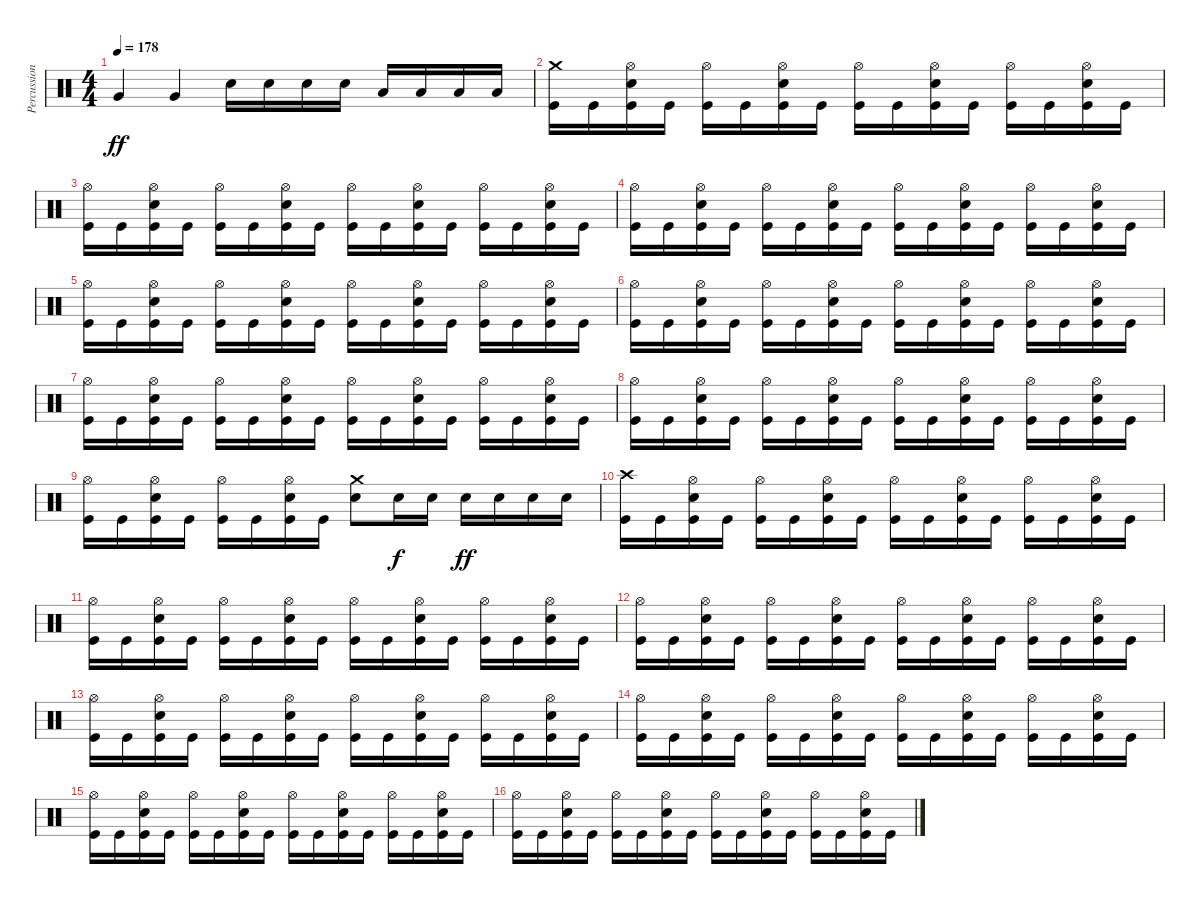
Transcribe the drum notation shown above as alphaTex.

\track ("Percussion" "Percussion") {instrument percussion}
\staff {score}
\articulation defaults
\ts (4 4)
\tempo 178
\clef neutral
\ks c "Very Low Tom (hit)".4{dy ff} "Very Low Tom (hit)".4 "Snare (hit) 2".16 "Snare (hit) 2".16 "Snare (hit) 2".16 "Snare (hit) 2".16 "Low Tom (hit)".16 "Low Tom (hit)".16 "Low Tom (hit)".16 "Low Tom (hit)".16
|
("Crash medium (hit)" "Kick (hit)").16 "Kick (hit)".16 ("Hi-Hat (open)" "Snare (hit) 2" "Kick (hit)").16 "Kick (hit)".16 ("Hi-Hat (open)" "Kick (hit)").16 "Kick (hit)".16 ("Hi-Hat (open)" "Snare (hit) 2" "Kick (hit)").16 "Kick (hit)".16 ("Hi-Hat (open)" "Kick (hit)").16 "Kick (hit)".16 ("Hi-Hat (open)" "Snare (hit) 2" "Kick (hit)").16 "Kick (hit)".16 ("Hi-Hat (open)" "Kick (hit)").16 "Kick (hit)".16 ("Hi-Hat (open)" "Snare (hit) 2" "Kick (hit)").16 "Kick (hit)".16 |
("Hi-Hat (open)" "Kick (hit)").16 "Kick (hit)".16 ("Hi-Hat (open)" "Snare (hit) 2" "Kick (hit)").16 "Kick (hit)".16 ("Hi-Hat (open)" "Kick (hit)").16 "Kick (hit)".16 ("Hi-Hat (open)" "Snare (hit) 2" "Kick (hit)").16 "Kick (hit)".16 ("Hi-Hat (open)" "Kick (hit)").16 "Kick (hit)".16 ("Hi-Hat (open)" "Snare (hit) 2" "Kick (hit)").16 "Kick (hit)".16 ("Hi-Hat (open)" "Kick (hit)").16 "Kick (hit)".16 ("Hi-Hat (open)" "Snare (hit) 2" "Kick (hit)").16 "Kick (hit)".16 |
("Hi-Hat (open)" "Kick (hit)").16 "Kick (hit)".16 ("Hi-Hat (open)" "Snare (hit) 2" "Kick (hit)").16 "Kick (hit)".16 ("Hi-Hat (open)" "Kick (hit)").16 "Kick (hit)".16 ("Hi-Hat (open)" "Snare (hit) 2" "Kick (hit)").16 "Kick (hit)".16 ("Hi-Hat (open)" "Kick (hit)").16 "Kick (hit)".16 ("Hi-Hat (open)" "Snare (hit) 2" "Kick (hit)").16 "Kick (hit)".16 ("Hi-Hat (open)" "Kick (hit)").16 "Kick (hit)".16 ("Hi-Hat (open)" "Snare (hit) 2" "Kick (hit)").16 "Kick (hit)".16 |
("Hi-Hat (open)" "Kick (hit)").16 "Kick (hit)".16 ("Hi-Hat (open)" "Snare (hit) 2" "Kick (hit)").16 "Kick (hit)".16 ("Hi-Hat (open)" "Kick (hit)").16 "Kick (hit)".16 ("Hi-Hat (open)" "Snare (hit) 2" "Kick (hit)").16 "Kick (hit)".16 ("Hi-Hat (open)" "Kick (hit)").16 "Kick (hit)".16 ("Hi-Hat (open)" "Snare (hit) 2" "Kick (hit)").16 "Kick (hit)".16 ("Hi-Hat (open)" "Kick (hit)").16 "Kick (hit)".16 ("Hi-Hat (open)" "Snare (hit) 2" "Kick (hit)").16 "Kick (hit)".16 |
("Hi-Hat (open)" "Kick (hit)").16 "Kick (hit)".16 ("Hi-Hat (open)" "Snare (hit) 2" "Kick (hit)").16 "Kick (hit)".16 ("Hi-Hat (open)" "Kick (hit)").16 "Kick (hit)".16 ("Hi-Hat (open)" "Snare (hit) 2" "Kick (hit)").16 "Kick (hit)".16 ("Hi-Hat (open)" "Kick (hit)").16 "Kick (hit)".16 ("Hi-Hat (open)" "Snare (hit) 2" "Kick (hit)").16 "Kick (hit)".16 ("Hi-Hat (open)" "Kick (hit)").16 "Kick (hit)".16 ("Hi-Hat (open)" "Snare (hit) 2" "Kick (hit)").16 "Kick (hit)".16 |
("Hi-Hat (open)" "Kick (hit)").16 "Kick (hit)".16 ("Hi-Hat (open)" "Snare (hit) 2" "Kick (hit)").16 "Kick (hit)".16 ("Hi-Hat (open)" "Kick (hit)").16 "Kick (hit)".16 ("Hi-Hat (open)" "Snare (hit) 2" "Kick (hit)").16 "Kick (hit)".16 ("Hi-Hat (open)" "Kick (hit)").16 "Kick (hit)".16 ("Hi-Hat (open)" "Snare (hit) 2" "Kick (hit)").16 "Kick (hit)".16 ("Hi-Hat (open)" "Kick (hit)").16 "Kick (hit)".16 ("Hi-Hat (open)" "Snare (hit) 2" "Kick (hit)").16 "Kick (hit)".16 |
("Hi-Hat (open)" "Kick (hit)").16 "Kick (hit)".16 ("Hi-Hat (open)" "Snare (hit) 2" "Kick (hit)").16 "Kick (hit)".16 ("Hi-Hat (open)" "Kick (hit)").16 "Kick (hit)".16 ("Hi-Hat (open)" "Snare (hit) 2" "Kick (hit)").16 "Kick (hit)".16 ("Hi-Hat (open)" "Kick (hit)").16 "Kick (hit)".16 ("Hi-Hat (open)" "Snare (hit) 2" "Kick (hit)").16 "Kick (hit)".16 ("Hi-Hat (open)" "Kick (hit)").16 "Kick (hit)".16 ("Hi-Hat (open)" "Snare (hit) 2" "Kick (hit)").16 "Kick (hit)".16 |
("Hi-Hat (open)" "Kick (hit)").16 "Kick (hit)".16 ("Hi-Hat (open)" "Snare (hit) 2" "Kick (hit)").16 "Kick (hit)".16 ("Hi-Hat (open)" "Kick (hit)").16 "Kick (hit)".16 ("Hi-Hat (open)" "Snare (hit) 2" "Kick (hit)").16 "Kick (hit)".16 ("Crash medium (hit)" "Snare (hit) 2").8 "Snare (hit) 2".16{dy f} "Snare (hit) 2".16 "Snare (hit) 2".16{dy ff} "Snare (hit) 2".16 "Snare (hit) 2".16 "Snare (hit) 2".16 |
("Crash high (hit)" "Kick (hit)").16 "Kick (hit)".16 ("Hi-Hat (open)" "Snare (hit) 2" "Kick (hit)").16 "Kick (hit)".16 ("Hi-Hat (open)" "Kick (hit)").16 "Kick (hit)".16 ("Hi-Hat (open)" "Snare (hit) 2" "Kick (hit)").16 "Kick (hit)".16 ("Hi-Hat (open)" "Kick (hit)").16 "Kick (hit)".16 ("Hi-Hat (open)" "Snare (hit) 2" "Kick (hit)").16 "Kick (hit)".16 ("Hi-Hat (open)" "Kick (hit)").16 "Kick (hit)".16 ("Hi-Hat (open)" "Snare (hit) 2" "Kick (hit)").16 "Kick (hit)".16 |
("Hi-Hat (open)" "Kick (hit)").16 "Kick (hit)".16 ("Hi-Hat (open)" "Snare (hit) 2" "Kick (hit)").16 "Kick (hit)".16 ("Hi-Hat (open)" "Kick (hit)").16 "Kick (hit)".16 ("Hi-Hat (open)" "Snare (hit) 2" "Kick (hit)").16 "Kick (hit)".16 ("Hi-Hat (open)" "Kick (hit)").16 "Kick (hit)".16 ("Hi-Hat (open)" "Snare (hit) 2" "Kick (hit)").16 "Kick (hit)".16 ("Hi-Hat (open)" "Kick (hit)").16 "Kick (hit)".16 ("Hi-Hat (open)" "Snare (hit) 2" "Kick (hit)").16 "Kick (hit)".16 |
("Hi-Hat (open)" "Kick (hit)").16 "Kick (hit)".16 ("Hi-Hat (open)" "Snare (hit) 2" "Kick (hit)").16 "Kick (hit)".16 ("Hi-Hat (open)" "Kick (hit)").16 "Kick (hit)".16 ("Hi-Hat (open)" "Snare (hit) 2" "Kick (hit)").16 "Kick (hit)".16 ("Hi-Hat (open)" "Kick (hit)").16 "Kick (hit)".16 ("Hi-Hat (open)" "Snare (hit) 2" "Kick (hit)").16 "Kick (hit)".16 ("Hi-Hat (open)" "Kick (hit)").16 "Kick (hit)".16 ("Hi-Hat (open)" "Snare (hit) 2" "Kick (hit)").16 "Kick (hit)".16 |
("Hi-Hat (open)" "Kick (hit)").16 "Kick (hit)".16 ("Hi-Hat (open)" "Snare (hit) 2" "Kick (hit)").16 "Kick (hit)".16 ("Hi-Hat (open)" "Kick (hit)").16 "Kick (hit)".16 ("Hi-Hat (open)" "Snare (hit) 2" "Kick (hit)").16 "Kick (hit)".16 ("Hi-Hat (open)" "Kick (hit)").16 "Kick (hit)".16 ("Hi-Hat (open)" "Snare (hit) 2" "Kick (hit)").16 "Kick (hit)".16 ("Hi-Hat (open)" "Kick (hit)").16 "Kick (hit)".16 ("Hi-Hat (open)" "Snare (hit) 2" "Kick (hit)").16 "Kick (hit)".16 |
("Hi-Hat (open)" "Kick (hit)").16 "Kick (hit)".16 ("Hi-Hat (open)" "Snare (hit) 2" "Kick (hit)").16 "Kick (hit)".16 ("Hi-Hat (open)" "Kick (hit)").16 "Kick (hit)".16 ("Hi-Hat (open)" "Snare (hit) 2" "Kick (hit)").16 "Kick (hit)".16 ("Hi-Hat (open)" "Kick (hit)").16 "Kick (hit)".16 ("Hi-Hat (open)" "Snare (hit) 2" "Kick (hit)").16 "Kick (hit)".16 ("Hi-Hat (open)" "Kick (hit)").16 "Kick (hit)".16 ("Hi-Hat (open)" "Snare (hit) 2" "Kick (hit)").16 "Kick (hit)".16 |
("Hi-Hat (open)" "Kick (hit)").16 "Kick (hit)".16 ("Hi-Hat (open)" "Snare (hit) 2" "Kick (hit)").16 "Kick (hit)".16 ("Hi-Hat (open)" "Kick (hit)").16 "Kick (hit)".16 ("Hi-Hat (open)" "Snare (hit) 2" "Kick (hit)").16 "Kick (hit)".16 ("Hi-Hat (open)" "Kick (hit)").16 "Kick (hit)".16 ("Hi-Hat (open)" "Snare (hit) 2" "Kick (hit)").16 "Kick (hit)".16 ("Hi-Hat (open)" "Kick (hit)").16 "Kick (hit)".16 ("Hi-Hat (open)" "Snare (hit) 2" "Kick (hit)").16 "Kick (hit)".16 |
("Hi-Hat (open)" "Kick (hit)").16 "Kick (hit)".16 ("Hi-Hat (open)" "Snare (hit) 2" "Kick (hit)").16 "Kick (hit)".16 ("Hi-Hat (open)" "Kick (hit)").16 "Kick (hit)".16 ("Hi-Hat (open)" "Snare (hit) 2" "Kick (hit)").16 "Kick (hit)".16 ("Hi-Hat (open)" "Kick (hit)").16 "Kick (hit)".16 ("Hi-Hat (open)" "Snare (hit) 2" "Kick (hit)").16 "Kick (hit)".16 ("Hi-Hat (open)" "Kick (hit)").16 "Kick (hit)".16 ("Hi-Hat (open)" "Snare (hit) 2" "Kick (hit)").16 "Kick (hit)".16
